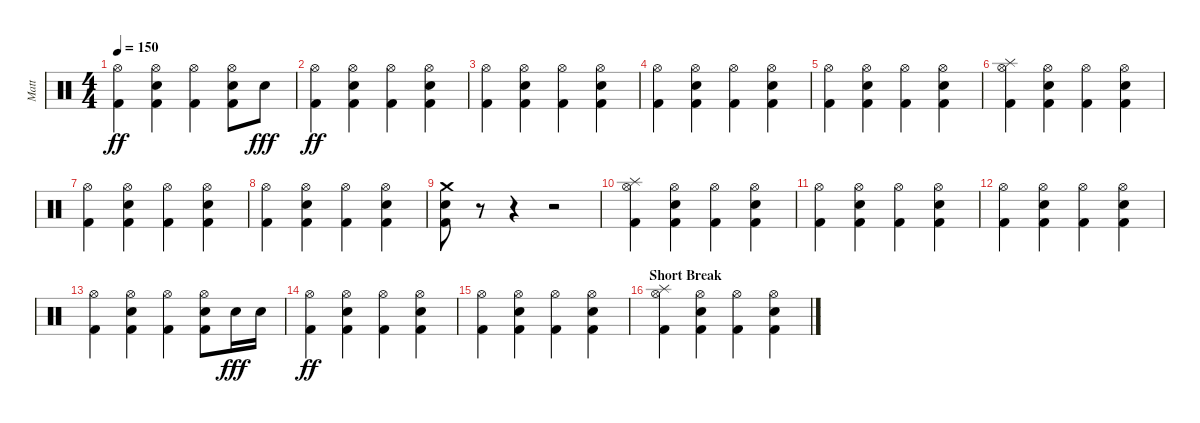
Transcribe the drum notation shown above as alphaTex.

\track ("Matt" "Matt") {instrument percussion}
\staff {score}
\articulation defaults
\ts (4 4)
\tempo 150
\clef neutral
\ks c
("Hi-Hat (open)" "Kick (hit) 2").4{dy ff} ("Hi-Hat (open)" "Electric Snare (hit)" "Kick (hit) 2").4 ("Hi-Hat (open)" "Kick (hit) 2").4 ("Hi-Hat (open)" "Electric Snare (hit)" "Kick (hit) 2").8 "Electric Snare (hit)".8{dy fff} |
("Hi-Hat (open)" "Kick (hit) 2").4{dy ff} ("Hi-Hat (open)" "Electric Snare (hit)" "Kick (hit) 2").4 ("Hi-Hat (open)" "Kick (hit) 2").4 ("Hi-Hat (open)" "Electric Snare (hit)" "Kick (hit) 2").4 |
("Hi-Hat (open)" "Kick (hit) 2").4 ("Hi-Hat (open)" "Electric Snare (hit)" "Kick (hit) 2").4 ("Hi-Hat (open)" "Kick (hit) 2").4 ("Hi-Hat (open)" "Electric Snare (hit)" "Kick (hit) 2").4 |
("Hi-Hat (open)" "Kick (hit) 2").4 ("Hi-Hat (open)" "Electric Snare (hit)" "Kick (hit) 2").4 ("Hi-Hat (open)" "Kick (hit) 2").4 ("Hi-Hat (open)" "Electric Snare (hit)" "Kick (hit) 2").4 |
("Hi-Hat (open)" "Kick (hit) 2").4 ("Hi-Hat (open)" "Electric Snare (hit)" "Kick (hit) 2").4 ("Hi-Hat (open)" "Kick (hit) 2").4 ("Hi-Hat (open)" "Electric Snare (hit)" "Kick (hit) 2").4 |
("Splash (hit)" "Hi-Hat (open)" "Kick (hit) 2").4 ("Hi-Hat (open)" "Electric Snare (hit)" "Kick (hit) 2").4 ("Hi-Hat (open)" "Kick (hit) 2").4 ("Hi-Hat (open)" "Electric Snare (hit)" "Kick (hit) 2").4 |
("Hi-Hat (open)" "Kick (hit) 2").4 ("Hi-Hat (open)" "Electric Snare (hit)" "Kick (hit) 2").4 ("Hi-Hat (open)" "Kick (hit) 2").4 ("Hi-Hat (open)" "Electric Snare (hit)" "Kick (hit) 2").4 |
("Hi-Hat (open)" "Kick (hit) 2").4 ("Hi-Hat (open)" "Electric Snare (hit)" "Kick (hit) 2").4 ("Hi-Hat (open)" "Kick (hit) 2").4 ("Hi-Hat (open)" "Electric Snare (hit)" "Kick (hit) 2").4 |
("Crash medium (hit)" "Electric Snare (hit)" "Kick (hit) 2").8 r.8 r.4 r.2 |
("Splash (hit)" "Hi-Hat (open)" "Kick (hit) 2").4 ("Hi-Hat (open)" "Electric Snare (hit)" "Kick (hit) 2").4 ("Hi-Hat (open)" "Kick (hit) 2").4 ("Hi-Hat (open)" "Electric Snare (hit)" "Kick (hit) 2").4 |
("Hi-Hat (open)" "Kick (hit) 2").4 ("Hi-Hat (open)" "Electric Snare (hit)" "Kick (hit) 2").4 ("Hi-Hat (open)" "Kick (hit) 2").4 ("Hi-Hat (open)" "Electric Snare (hit)" "Kick (hit) 2").4 |
("Hi-Hat (open)" "Kick (hit) 2").4 ("Hi-Hat (open)" "Electric Snare (hit)" "Kick (hit) 2").4 ("Hi-Hat (open)" "Kick (hit) 2").4 ("Hi-Hat (open)" "Electric Snare (hit)" "Kick (hit) 2").4 |
("Hi-Hat (open)" "Kick (hit) 2").4 ("Hi-Hat (open)" "Electric Snare (hit)" "Kick (hit) 2").4 ("Hi-Hat (open)" "Kick (hit) 2").4 ("Hi-Hat (open)" "Electric Snare (hit)" "Kick (hit) 2").8 "Electric Snare (hit)".16{dy fff} "Electric Snare (hit)".16 |
("Hi-Hat (open)" "Kick (hit) 2").4{dy ff} ("Hi-Hat (open)" "Electric Snare (hit)" "Kick (hit) 2").4 ("Hi-Hat (open)" "Kick (hit) 2").4 ("Hi-Hat (open)" "Electric Snare (hit)" "Kick (hit) 2").4 |
("Hi-Hat (open)" "Kick (hit) 2").4 ("Hi-Hat (open)" "Electric Snare (hit)" "Kick (hit) 2").4 ("Hi-Hat (open)" "Kick (hit) 2").4 ("Hi-Hat (open)" "Electric Snare (hit)" "Kick (hit) 2").4 |
\section ("" "Short Break")
("Splash (hit)" "Hi-Hat (open)" "Kick (hit) 2").4 ("Hi-Hat (open)" "Electric Snare (hit)" "Kick (hit) 2").4 ("Hi-Hat (open)" "Kick (hit) 2").4 ("Hi-Hat (open)" "Electric Snare (hit)" "Kick (hit) 2").4
